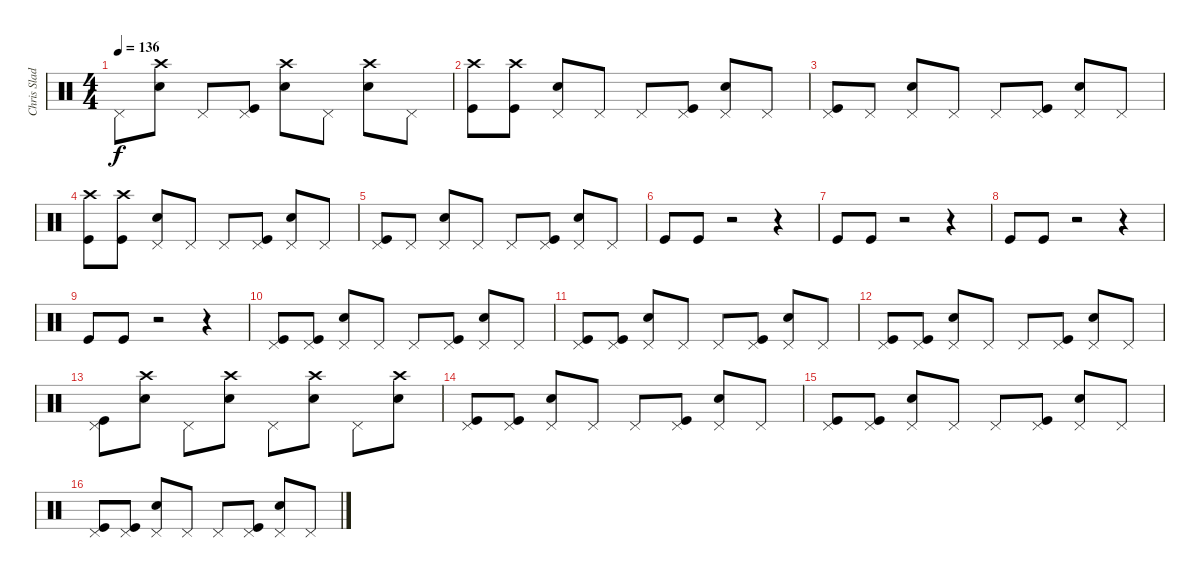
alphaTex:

\track ("Chris Slade" "Chris Slad") {instrument percussion}
\staff {score}
\articulation defaults
\ts (4 4)
\tempo 136
\clef neutral
\ks c "Pedal Hi-Hat (hit)".8{dy f}
("Crash high (hit)" "Snare (hit) 2").8 "Pedal Hi-Hat (hit)".8 ("Pedal Hi-Hat (hit)" "Kick (hit)").8 ("Crash high (hit)" "Snare (hit) 2").8 "Pedal Hi-Hat (hit)".8 ("Crash high (hit)" "Snare (hit) 2").8 "Pedal Hi-Hat (hit)".8 |
("Crash high (hit)" "Kick (hit)").8 ("Crash high (hit)" "Kick (hit)").8 ("Pedal Hi-Hat (hit)" "Snare (hit) 2").8 "Pedal Hi-Hat (hit)".8 "Pedal Hi-Hat (hit)".8 ("Pedal Hi-Hat (hit)" "Kick (hit)").8 ("Pedal Hi-Hat (hit)" "Snare (hit) 2").8 "Pedal Hi-Hat (hit)".8 |
("Pedal Hi-Hat (hit)" "Kick (hit)").8 "Pedal Hi-Hat (hit)".8 ("Pedal Hi-Hat (hit)" "Snare (hit) 2").8 "Pedal Hi-Hat (hit)".8 "Pedal Hi-Hat (hit)".8 ("Pedal Hi-Hat (hit)" "Kick (hit)").8 ("Pedal Hi-Hat (hit)" "Snare (hit) 2").8 "Pedal Hi-Hat (hit)".8 |
("Crash high (hit)" "Kick (hit)").8 ("Crash high (hit)" "Kick (hit)").8 ("Pedal Hi-Hat (hit)" "Snare (hit) 2").8 "Pedal Hi-Hat (hit)".8 "Pedal Hi-Hat (hit)".8 ("Pedal Hi-Hat (hit)" "Kick (hit)").8 ("Pedal Hi-Hat (hit)" "Snare (hit) 2").8 "Pedal Hi-Hat (hit)".8 |
("Pedal Hi-Hat (hit)" "Kick (hit)").8 "Pedal Hi-Hat (hit)".8 ("Pedal Hi-Hat (hit)" "Snare (hit) 2").8 "Pedal Hi-Hat (hit)".8 "Pedal Hi-Hat (hit)".8 ("Pedal Hi-Hat (hit)" "Kick (hit)").8 ("Pedal Hi-Hat (hit)" "Snare (hit) 2").8 "Pedal Hi-Hat (hit)".8 |
"Kick (hit)".8 "Kick (hit)".8 r.2 r.4 |
"Kick (hit)".8 "Kick (hit)".8 r.2 r.4 |
"Kick (hit)".8 "Kick (hit)".8 r.2 r.4 |
"Kick (hit)".8 "Kick (hit)".8 r.2 r.4 |
("Pedal Hi-Hat (hit)" "Kick (hit)").8 ("Pedal Hi-Hat (hit)" "Kick (hit)").8 ("Pedal Hi-Hat (hit)" "Snare (hit) 2").8 "Pedal Hi-Hat (hit)".8 "Pedal Hi-Hat (hit)".8 ("Pedal Hi-Hat (hit)" "Kick (hit)").8 ("Pedal Hi-Hat (hit)" "Snare (hit) 2").8 "Pedal Hi-Hat (hit)".8 |
("Pedal Hi-Hat (hit)" "Kick (hit)").8 ("Pedal Hi-Hat (hit)" "Kick (hit)").8 ("Pedal Hi-Hat (hit)" "Snare (hit) 2").8 "Pedal Hi-Hat (hit)".8 "Pedal Hi-Hat (hit)".8 ("Pedal Hi-Hat (hit)" "Kick (hit)").8 ("Pedal Hi-Hat (hit)" "Snare (hit) 2").8 "Pedal Hi-Hat (hit)".8 |
("Pedal Hi-Hat (hit)" "Kick (hit)").8 ("Pedal Hi-Hat (hit)" "Kick (hit)").8 ("Pedal Hi-Hat (hit)" "Snare (hit) 2").8 "Pedal Hi-Hat (hit)".8 "Pedal Hi-Hat (hit)".8 ("Pedal Hi-Hat (hit)" "Kick (hit)").8 ("Pedal Hi-Hat (hit)" "Snare (hit) 2").8 "Pedal Hi-Hat (hit)".8 |
("Pedal Hi-Hat (hit)" "Kick (hit)").8 ("Crash high (hit)" "Snare (hit) 2").8 "Pedal Hi-Hat (hit)".8 ("Crash high (hit)" "Snare (hit) 2").8 "Pedal Hi-Hat (hit)".8 ("Crash high (hit)" "Snare (hit) 2").8 "Pedal Hi-Hat (hit)".8 ("Crash high (hit)" "Snare (hit) 2").8 |
("Pedal Hi-Hat (hit)" "Kick (hit)").8 ("Pedal Hi-Hat (hit)" "Kick (hit)").8 ("Pedal Hi-Hat (hit)" "Snare (hit) 2").8 "Pedal Hi-Hat (hit)".8 "Pedal Hi-Hat (hit)".8 ("Pedal Hi-Hat (hit)" "Kick (hit)").8 ("Pedal Hi-Hat (hit)" "Snare (hit) 2").8 "Pedal Hi-Hat (hit)".8 |
("Pedal Hi-Hat (hit)" "Kick (hit)").8 ("Pedal Hi-Hat (hit)" "Kick (hit)").8 ("Pedal Hi-Hat (hit)" "Snare (hit) 2").8 "Pedal Hi-Hat (hit)".8 "Pedal Hi-Hat (hit)".8 ("Pedal Hi-Hat (hit)" "Kick (hit)").8 ("Pedal Hi-Hat (hit)" "Snare (hit) 2").8 "Pedal Hi-Hat (hit)".8 |
("Pedal Hi-Hat (hit)" "Kick (hit)").8 ("Pedal Hi-Hat (hit)" "Kick (hit)").8 ("Pedal Hi-Hat (hit)" "Snare (hit) 2").8 "Pedal Hi-Hat (hit)".8 "Pedal Hi-Hat (hit)".8 ("Pedal Hi-Hat (hit)" "Kick (hit)").8 ("Pedal Hi-Hat (hit)" "Snare (hit) 2").8 "Pedal Hi-Hat (hit)".8
